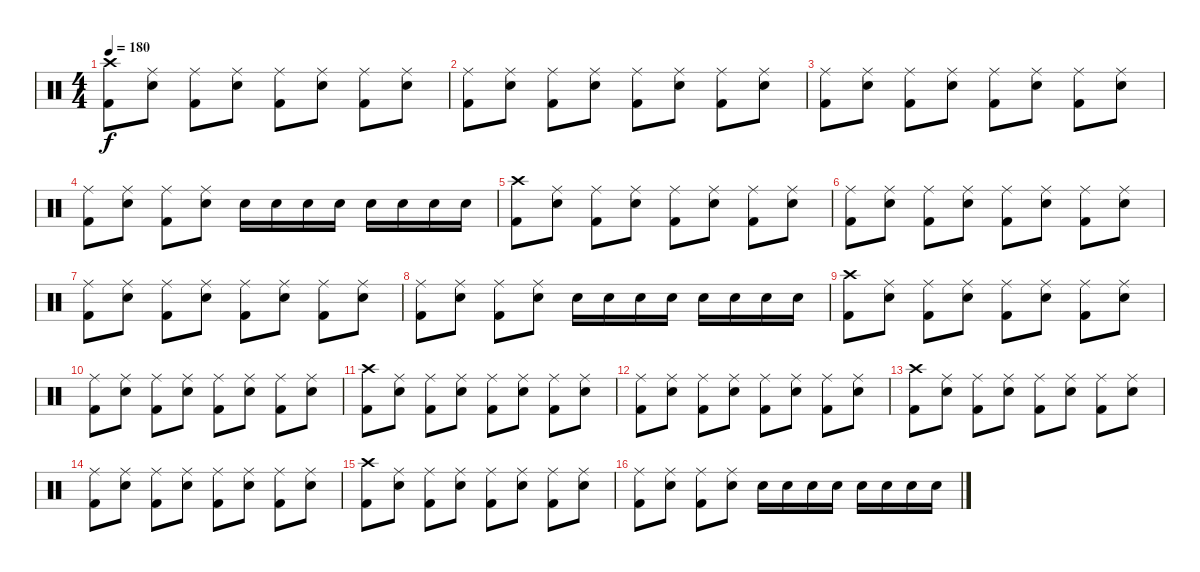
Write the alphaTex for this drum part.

\track "" {instrument percussion}
\staff {score}
\articulation defaults
\ts (4 4)
\tempo 180
\clef neutral
\ks c
("Crash high (hit)" "Kick (hit) 2").8{dy f} ("Ride (middle)" "Snare (hit) 2").8 ("Ride (middle)" "Kick (hit) 2").8 ("Snare (hit) 2" "Ride (middle)").8 ("Ride (middle)" "Kick (hit) 2").8 ("Snare (hit) 2" "Ride (middle)").8 ("Kick (hit) 2" "Ride (middle)").8 ("Snare (hit) 2" "Ride (middle)").8 |
("Kick (hit) 2" "Ride (middle)").8 ("Ride (middle)" "Snare (hit) 2").8 ("Ride (middle)" "Kick (hit) 2").8 ("Ride (middle)" "Snare (hit) 2").8 ("Ride (middle)" "Kick (hit) 2").8 ("Ride (middle)" "Snare (hit) 2").8 ("Ride (middle)" "Kick (hit) 2").8 ("Ride (middle)" "Snare (hit) 2").8 |
("Ride (middle)" "Kick (hit) 2").8 ("Snare (hit) 2" "Ride (middle)").8 ("Ride (middle)" "Kick (hit) 2").8 ("Ride (middle)" "Snare (hit) 2").8 ("Ride (middle)" "Kick (hit) 2").8 ("Snare (hit) 2" "Ride (middle)").8 ("Ride (middle)" "Kick (hit) 2").8 ("Snare (hit) 2" "Ride (middle)").8 |
("Kick (hit) 2" "Ride (middle)").8 ("Ride (middle)" "Snare (hit) 2").8 ("Ride (middle)" "Kick (hit) 2").8 ("Snare (hit) 2" "Ride (middle)").8 "Snare (hit) 2".16 "Snare (hit) 2".16 "Snare (hit) 2".16 "Snare (hit) 2".16 "Snare (hit) 2".16 "Snare (hit) 2".16 "Snare (hit) 2".16 "Snare (hit) 2".16 |
("Crash high (hit)" "Kick (hit) 2").8 ("Ride (middle)" "Snare (hit) 2").8 ("Kick (hit) 2" "Ride (middle)").8 ("Ride (middle)" "Snare (hit) 2").8 ("Kick (hit) 2" "Ride (middle)").8 ("Ride (middle)" "Snare (hit) 2").8 ("Ride (middle)" "Kick (hit) 2").8 ("Snare (hit) 2" "Ride (middle)").8 |
("Kick (hit) 2" "Ride (middle)").8 ("Snare (hit) 2" "Ride (middle)").8 ("Ride (middle)" "Kick (hit) 2").8 ("Snare (hit) 2" "Ride (middle)").8 ("Kick (hit) 2" "Ride (middle)").8 ("Ride (middle)" "Snare (hit) 2").8 ("Ride (middle)" "Kick (hit) 2").8 ("Ride (middle)" "Snare (hit) 2").8 |
("Kick (hit) 2" "Ride (middle)").8 ("Ride (middle)" "Snare (hit) 2").8 ("Ride (middle)" "Kick (hit) 2").8 ("Snare (hit) 2" "Ride (middle)").8 ("Kick (hit) 2" "Ride (middle)").8 ("Snare (hit) 2" "Ride (middle)").8 ("Kick (hit) 2" "Ride (middle)").8 ("Snare (hit) 2" "Ride (middle)").8 |
("Kick (hit) 2" "Ride (middle)").8 ("Snare (hit) 2" "Ride (middle)").8 ("Ride (middle)" "Kick (hit) 2").8 ("Snare (hit) 2" "Ride (middle)").8 "Snare (hit) 2".16 "Snare (hit) 2".16 "Snare (hit) 2".16 "Snare (hit) 2".16 "Snare (hit) 2".16 "Snare (hit) 2".16 "Snare (hit) 2".16 "Snare (hit) 2".16 |
("Kick (hit) 2" "Crash high (hit)").8 ("Ride (middle)" "Snare (hit) 2").8 ("Ride (middle)" "Kick (hit) 2").8 ("Ride (middle)" "Snare (hit) 2").8 ("Kick (hit) 2" "Ride (middle)").8 ("Snare (hit) 2" "Ride (middle)").8 ("Kick (hit) 2" "Ride (middle)").8 ("Ride (middle)" "Snare (hit) 2").8 |
("Kick (hit) 2" "Ride (middle)").8 ("Snare (hit) 2" "Ride (middle)").8 ("Ride (middle)" "Kick (hit) 2").8 ("Ride (middle)" "Snare (hit) 2").8 ("Ride (middle)" "Kick (hit) 2").8 ("Snare (hit) 2" "Ride (middle)").8 ("Ride (middle)" "Kick (hit) 2").8 ("Ride (middle)" "Snare (hit) 2").8 |
("Crash high (hit)" "Kick (hit) 2").8 ("Ride (middle)" "Snare (hit) 2").8 ("Ride (middle)" "Kick (hit) 2").8 ("Snare (hit) 2" "Ride (middle)").8 ("Kick (hit) 2" "Ride (middle)").8 ("Snare (hit) 2" "Ride (middle)").8 ("Kick (hit) 2" "Ride (middle)").8 ("Ride (middle)" "Snare (hit) 2").8 |
("Ride (middle)" "Kick (hit) 2").8 ("Ride (middle)" "Snare (hit) 2").8 ("Ride (middle)" "Kick (hit) 2").8 ("Snare (hit) 2" "Ride (middle)").8 ("Kick (hit) 2" "Ride (middle)").8 ("Ride (middle)" "Snare (hit) 2").8 ("Ride (middle)" "Kick (hit) 2").8 ("Ride (middle)" "Snare (hit) 2").8 |
("Kick (hit) 2" "Crash high (hit)").8 ("Ride (middle)" "Snare (hit) 2").8 ("Ride (middle)" "Kick (hit) 2").8 ("Ride (middle)" "Snare (hit) 2").8 ("Kick (hit) 2" "Ride (middle)").8 ("Snare (hit) 2" "Ride (middle)").8 ("Ride (middle)" "Kick (hit) 2").8 ("Ride (middle)" "Snare (hit) 2").8 |
("Ride (middle)" "Kick (hit) 2").8 ("Ride (middle)" "Snare (hit) 2").8 ("Kick (hit) 2" "Ride (middle)").8 ("Ride (middle)" "Snare (hit) 2").8 ("Ride (middle)" "Kick (hit) 2").8 ("Ride (middle)" "Snare (hit) 2").8 ("Kick (hit) 2" "Ride (middle)").8 ("Snare (hit) 2" "Ride (middle)").8 |
("Kick (hit) 2" "Crash high (hit)").8 ("Snare (hit) 2" "Ride (middle)").8 ("Kick (hit) 2" "Ride (middle)").8 ("Snare (hit) 2" "Ride (middle)").8 ("Ride (middle)" "Kick (hit) 2").8 ("Ride (middle)" "Snare (hit) 2").8 ("Ride (middle)" "Kick (hit) 2").8 ("Ride (middle)" "Snare (hit) 2").8 |
("Kick (hit) 2" "Ride (middle)").8 ("Ride (middle)" "Snare (hit) 2").8 ("Ride (middle)" "Kick (hit) 2").8 ("Snare (hit) 2" "Ride (middle)").8 "Snare (hit) 2".16 "Snare (hit) 2".16 "Snare (hit) 2".16 "Snare (hit) 2".16 "Snare (hit) 2".16 "Snare (hit) 2".16 "Snare (hit) 2".16 "Snare (hit) 2".16
